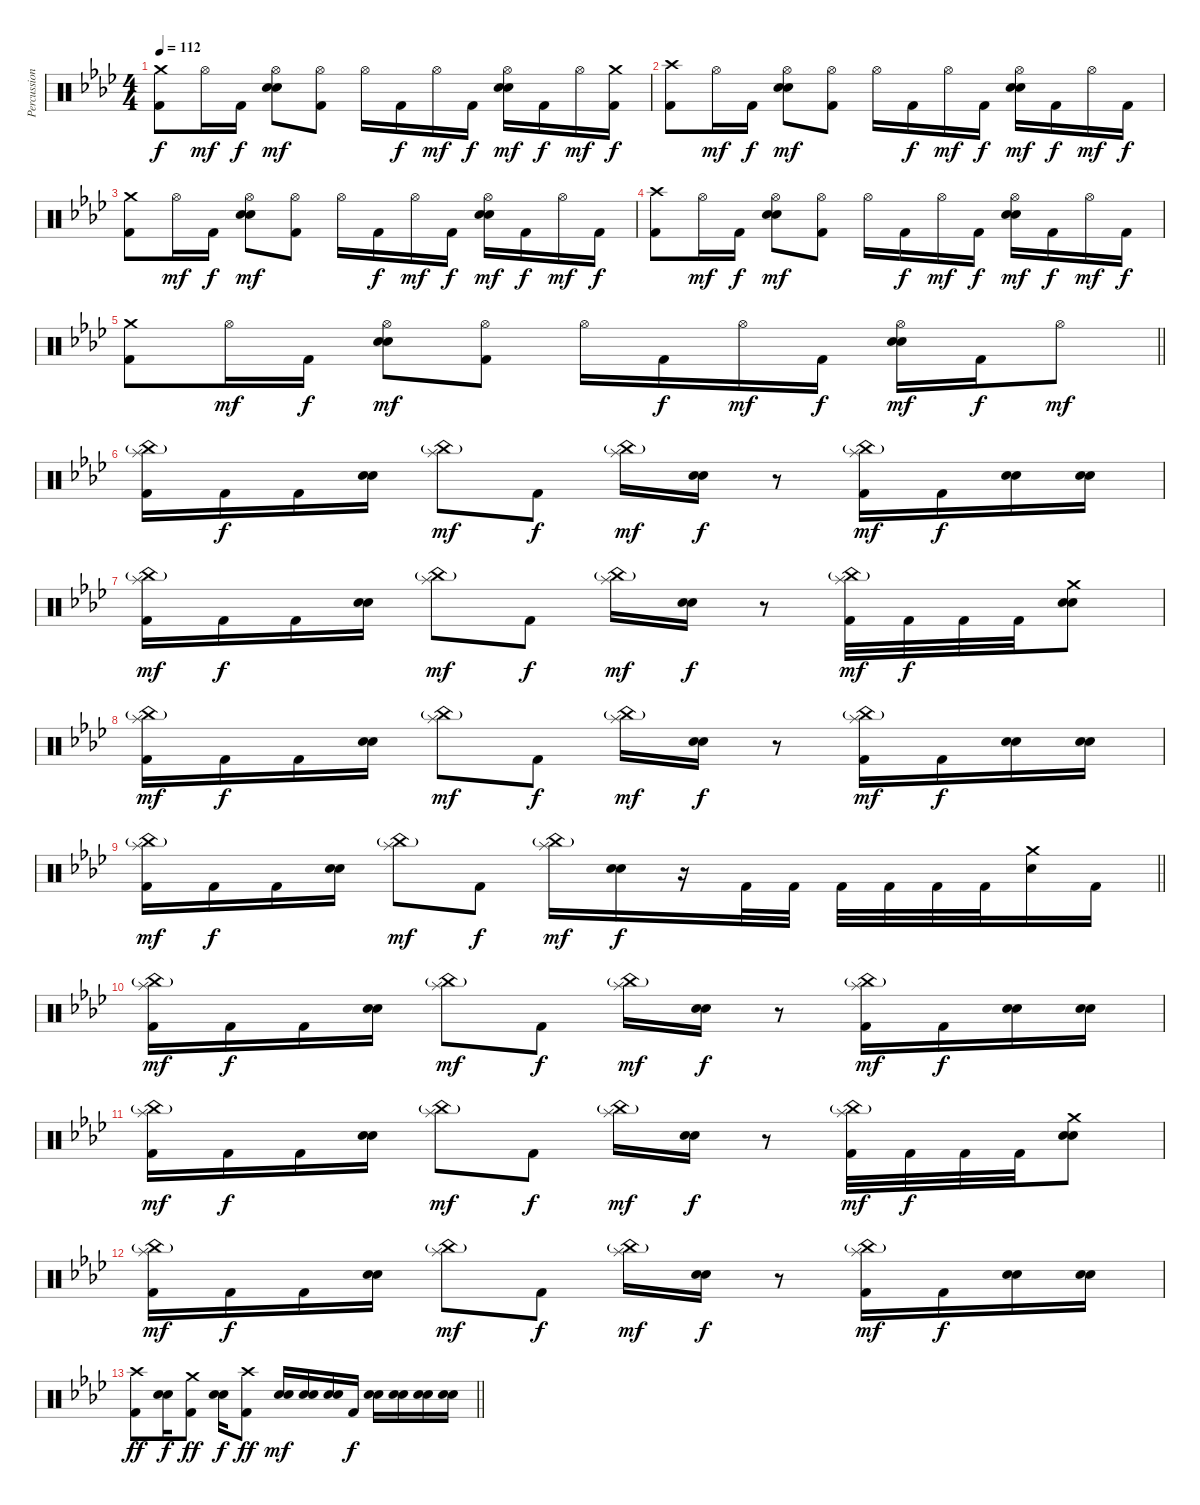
\track ("Percussion" "Percussion") {instrument percussion}
\staff {score}
\articulation defaults
\ts (4 4)
\tempo 112
\clef neutral
\ks ab
("Crash medium (hit)" "Kick (hit) 2").8{dy f} "Hi-Hat (open)".16{dy mf} "Kick (hit) 2".16{dy f} ("Hi-Hat (open)" "Electric Snare (hit)" "Snare (hit) 2").8{dy mf} ("Hi-Hat (open)" "Kick (hit) 2").8 "Hi-Hat (open)".16 "Kick (hit) 2".16{dy f} "Hi-Hat (open)".16{dy mf} "Kick (hit) 2".16{dy f} ("Hi-Hat (open)" "Electric Snare (hit)" "Snare (hit) 2").16{dy mf} "Kick (hit) 2".16{dy f} "Hi-Hat (open)".16{dy mf} ("Crash medium (hit)" "Kick (hit) 2").16{dy f} |
("Crash high (hit)" "Kick (hit) 2").8 "Hi-Hat (open)".16{dy mf} "Kick (hit) 2".16{dy f} ("Hi-Hat (open)" "Electric Snare (hit)" "Snare (hit) 2").8{dy mf} ("Hi-Hat (open)" "Kick (hit) 2").8 "Hi-Hat (open)".16 "Kick (hit) 2".16{dy f} "Hi-Hat (open)".16{dy mf} "Kick (hit) 2".16{dy f} ("Hi-Hat (open)" "Electric Snare (hit)" "Snare (hit) 2").16{dy mf} "Kick (hit) 2".16{dy f} "Hi-Hat (open)".16{dy mf} "Kick (hit) 2".16{dy f} |
("Crash medium (hit)" "Kick (hit) 2").8 "Hi-Hat (open)".16{dy mf} "Kick (hit) 2".16{dy f} ("Hi-Hat (open)" "Electric Snare (hit)" "Snare (hit) 2").8{dy mf} ("Hi-Hat (open)" "Kick (hit) 2").8 "Hi-Hat (open)".16 "Kick (hit) 2".16{dy f} "Hi-Hat (open)".16{dy mf} "Kick (hit) 2".16{dy f} ("Hi-Hat (open)" "Electric Snare (hit)" "Snare (hit) 2").16{dy mf} "Kick (hit) 2".16{dy f} "Hi-Hat (open)".16{dy mf} "Kick (hit) 2".16{dy f} |
("Crash high (hit)" "Kick (hit) 2").8 "Hi-Hat (open)".16{dy mf} "Kick (hit) 2".16{dy f} ("Hi-Hat (open)" "Electric Snare (hit)" "Snare (hit) 2").8{dy mf} ("Hi-Hat (open)" "Kick (hit) 2").8 "Hi-Hat (open)".16 "Kick (hit) 2".16{dy f} "Hi-Hat (open)".16{dy mf} "Kick (hit) 2".16{dy f} ("Hi-Hat (open)" "Electric Snare (hit)" "Snare (hit) 2").16{dy mf} "Kick (hit) 2".16{dy f} "Hi-Hat (open)".16{dy mf} "Kick (hit) 2".16{dy f} |
\barLineRight lightlight
("Crash medium (hit)" "Kick (hit) 2").8 "Hi-Hat (open)".16{dy mf} "Kick (hit) 2".16{dy f} ("Hi-Hat (open)" "Electric Snare (hit)" "Snare (hit) 2").8{dy mf} ("Hi-Hat (open)" "Kick (hit) 2").8 "Hi-Hat (open)".16 "Kick (hit) 2".16{dy f} "Hi-Hat (open)".16{dy mf} "Kick (hit) 2".16{dy f} ("Hi-Hat (open)" "Electric Snare (hit)" "Snare (hit) 2").16{dy mf} "Kick (hit) 2".16{dy f} "Hi-Hat (open)".8{dy mf} |
("Splash (hit)" "China (hit)"{g} "Kick (hit) 2").16 "Kick (hit) 2".16{dy f} "Kick (hit) 2".16 ("Electric Snare (hit)" "Snare (hit) 2").16 ("Splash (hit)" "China (hit)"{g}).8{dy mf} "Kick (hit) 2".8{dy f} ("Splash (hit)" "China (hit)"{g}).16{dy mf} ("Electric Snare (hit)" "Snare (hit) 2").16{dy f} r.8 ("Splash (hit)" "China (hit)"{g} "Kick (hit) 2").16{dy mf} "Kick (hit) 2".16{dy f} ("Electric Snare (hit)" "Snare (hit) 2").16 ("Electric Snare (hit)" "Snare (hit) 2").16 |
("Splash (hit)" "China (hit)"{g} "Kick (hit) 2").16{dy mf} "Kick (hit) 2".16{dy f} "Kick (hit) 2".16 ("Electric Snare (hit)" "Snare (hit) 2").16 ("Splash (hit)" "China (hit)"{g}).8{dy mf} "Kick (hit) 2".8{dy f} ("Splash (hit)" "China (hit)"{g}).16{dy mf} ("Electric Snare (hit)" "Snare (hit) 2").16{dy f} r.8 ("Splash (hit)" "China (hit)"{g} "Kick (hit) 2").32{dy mf} "Kick (hit) 2".32{dy f} "Kick (hit) 2".32 "Kick (hit) 2".32 ("Crash medium (hit)" "Electric Snare (hit)" "Snare (hit) 2").8 |
("Splash (hit)" "China (hit)"{g} "Kick (hit) 2").16{dy mf} "Kick (hit) 2".16{dy f} "Kick (hit) 2".16 ("Electric Snare (hit)" "Snare (hit) 2").16 ("Splash (hit)" "China (hit)"{g}).8{dy mf} "Kick (hit) 2".8{dy f} ("Splash (hit)" "China (hit)"{g}).16{dy mf} ("Electric Snare (hit)" "Snare (hit) 2").16{dy f} r.8 ("Splash (hit)" "China (hit)"{g} "Kick (hit) 2").16{dy mf} "Kick (hit) 2".16{dy f} ("Electric Snare (hit)" "Snare (hit) 2").16 ("Electric Snare (hit)" "Snare (hit) 2").16 |
\barLineRight lightlight
("Splash (hit)" "China (hit)"{g} "Kick (hit) 2").16{dy mf} "Kick (hit) 2".16{dy f} "Kick (hit) 2".16 ("Electric Snare (hit)" "Snare (hit) 2").16 ("Splash (hit)" "China (hit)"{g}).8{dy mf} "Kick (hit) 2".8{dy f} ("Splash (hit)" "China (hit)"{g}).16{dy mf} ("Electric Snare (hit)" "Snare (hit) 2").16{dy f} r.16 "Kick (hit) 2".32 "Kick (hit) 2".32 "Kick (hit) 2".32 "Kick (hit) 2".32 "Kick (hit) 2".32 "Kick (hit) 2".32 ("Crash medium (hit)" "Snare (hit) 2").16 "Kick (hit) 2".16 |
("Splash (hit)" "China (hit)"{g} "Kick (hit) 2").16{dy mf} "Kick (hit) 2".16{dy f} "Kick (hit) 2".16 ("Electric Snare (hit)" "Snare (hit) 2").16 ("Splash (hit)" "China (hit)"{g}).8{dy mf} "Kick (hit) 2".8{dy f} ("Splash (hit)" "China (hit)"{g}).16{dy mf} ("Electric Snare (hit)" "Snare (hit) 2").16{dy f} r.8 ("Splash (hit)" "China (hit)"{g} "Kick (hit) 2").16{dy mf} "Kick (hit) 2".16{dy f} ("Electric Snare (hit)" "Snare (hit) 2").16 ("Electric Snare (hit)" "Snare (hit) 2").16 |
("Splash (hit)" "China (hit)"{g} "Kick (hit) 2").16{dy mf} "Kick (hit) 2".16{dy f} "Kick (hit) 2".16 ("Electric Snare (hit)" "Snare (hit) 2").16 ("Splash (hit)" "China (hit)"{g}).8{dy mf} "Kick (hit) 2".8{dy f} ("Splash (hit)" "China (hit)"{g}).16{dy mf} ("Electric Snare (hit)" "Snare (hit) 2").16{dy f} r.8 ("Splash (hit)" "China (hit)"{g} "Kick (hit) 2").32{dy mf} "Kick (hit) 2".32{dy f} "Kick (hit) 2".32 "Kick (hit) 2".32 ("Crash medium (hit)" "Electric Snare (hit)" "Snare (hit) 2").8 |
("Splash (hit)" "China (hit)"{g} "Kick (hit) 2").16{dy mf} "Kick (hit) 2".16{dy f} "Kick (hit) 2".16 ("Electric Snare (hit)" "Snare (hit) 2").16 ("Splash (hit)" "China (hit)"{g}).8{dy mf} "Kick (hit) 2".8{dy f} ("Splash (hit)" "China (hit)"{g}).16{dy mf} ("Electric Snare (hit)" "Snare (hit) 2").16{dy f} r.8 ("Splash (hit)" "China (hit)"{g} "Kick (hit) 2").16{dy mf} "Kick (hit) 2".16{dy f} ("Electric Snare (hit)" "Snare (hit) 2").16 ("Electric Snare (hit)" "Snare (hit) 2").16 |
\barLineRight lightlight
("Crash high (hit)" "Kick (hit) 2").8{dy ff} ("Electric Snare (hit)" "Snare (hit) 2").16{dy f} ("Crash medium (hit)" "Kick (hit) 2").8{dy ff} ("Electric Snare (hit)" "Snare (hit) 2").16{dy f} ("Crash high (hit)" "Kick (hit) 2").8{dy ff} ("Electric Snare (hit)" "Snare (hit) 2").16{dy mf} ("Electric Snare (hit)" "Snare (hit) 2").16 ("Electric Snare (hit)" "Snare (hit) 2").16 "Kick (hit) 2".16{dy f} ("Electric Snare (hit)" "Snare (hit) 2").16 ("Electric Snare (hit)" "Snare (hit) 2").16 ("Electric Snare (hit)" "Snare (hit) 2").16 ("Electric Snare (hit)" "Snare (hit) 2").16
